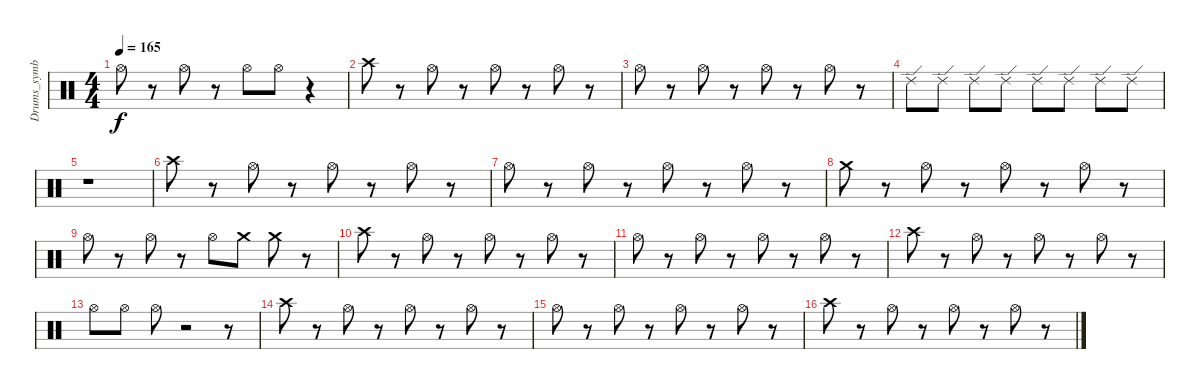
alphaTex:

\track ("Drums_symbal" "Drums_symb") {instrument percussion}
\staff {score}
\articulation defaults
\ts (4 4)
\tempo 165
\clef neutral
\ks c "Hi-Hat (open)".8{dy f}
r.8 "Hi-Hat (open)".8 r.8 "Hi-Hat (open)".8 "Hi-Hat (open)".8 r.4 |
"Crash high (hit)".8 r.8 "Hi-Hat (open)".8 r.8 "Hi-Hat (open)".8 r.8 "Hi-Hat (open)".8 r.8 |
"Hi-Hat (open)".8 r.8 "Hi-Hat (open)".8 r.8 "Hi-Hat (open)".8 r.8 "Hi-Hat (open)".8 r.8 |
"Ride (edge) 2".8 "Ride (edge) 2".8 "Ride (edge) 2".8 "Ride (edge) 2".8 "Ride (edge) 2".8 "Ride (edge) 2".8 "Ride (edge) 2".8 "Ride (edge) 2".8 |
r.1 |
"Crash high (hit)".8 r.8 "Hi-Hat (open)".8 r.8 "Hi-Hat (open)".8 r.8 "Hi-Hat (open)".8 r.8 |
"Hi-Hat (open)".8 r.8 "Hi-Hat (open)".8 r.8 "Hi-Hat (open)".8 r.8 "Hi-Hat (open)".8 r.8 |
"Crash medium (hit)".8 r.8 "Hi-Hat (open)".8 r.8 "Hi-Hat (open)".8 r.8 "Hi-Hat (open)".8 r.8 |
"Hi-Hat (open)".8 r.8 "Hi-Hat (open)".8 r.8 "Hi-Hat (open)".8 "Crash medium (hit)".8 "Crash medium (hit)".8 r.8 |
"Crash high (hit)".8 r.8 "Hi-Hat (open)".8 r.8 "Hi-Hat (open)".8 r.8 "Hi-Hat (open)".8 r.8 |
"Hi-Hat (open)".8 r.8 "Hi-Hat (open)".8 r.8 "Hi-Hat (open)".8 r.8 "Hi-Hat (open)".8 r.8 |
"Crash high (hit)".8 r.8 "Hi-Hat (open)".8 r.8 "Hi-Hat (open)".8 r.8 "Hi-Hat (open)".8 r.8 |
"Hi-Hat (open)".8 "Hi-Hat (open)".8 "Hi-Hat (open)".8 r.2 r.8 |
"Crash high (hit)".8 r.8 "Hi-Hat (open)".8 r.8 "Hi-Hat (open)".8 r.8 "Hi-Hat (open)".8 r.8 |
"Hi-Hat (open)".8 r.8 "Hi-Hat (open)".8 r.8 "Hi-Hat (open)".8 r.8 "Hi-Hat (open)".8 r.8 |
"Crash high (hit)".8 r.8 "Hi-Hat (open)".8 r.8 "Hi-Hat (open)".8 r.8 "Hi-Hat (open)".8 r.8
